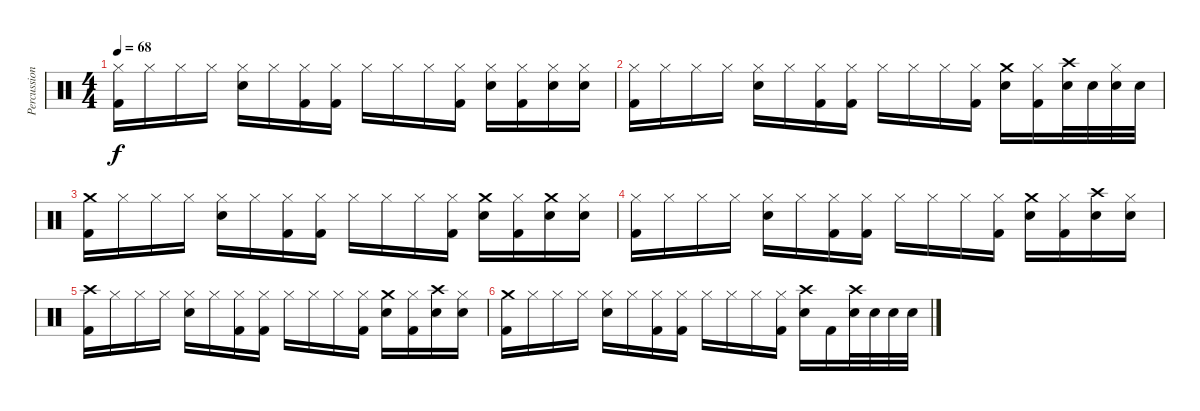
\track ("Percussion" "Percussion") {instrument percussion}
\staff {score}
\articulation defaults
\ts (4 4)
\tempo 68
\clef neutral
\ks c
("Hi-Hat (closed)" "Kick (hit) 2").16{dy f} "Hi-Hat (closed)".16 "Hi-Hat (closed)".16 "Hi-Hat (closed)".16 ("Hi-Hat (closed)" "Electric Snare (hit)").16 "Hi-Hat (closed)".16 ("Hi-Hat (closed)" "Kick (hit) 2").16 ("Hi-Hat (closed)" "Kick (hit) 2").16 "Hi-Hat (closed)".16 "Hi-Hat (closed)".16 "Hi-Hat (closed)".16 ("Hi-Hat (closed)" "Kick (hit) 2").16 ("Hi-Hat (closed)" "Electric Snare (hit)").16 ("Hi-Hat (closed)" "Kick (hit) 2").16 ("Hi-Hat (closed)" "Electric Snare (hit)").16 ("Hi-Hat (closed)" "Electric Snare (hit)").16 |
("Hi-Hat (closed)" "Kick (hit) 2").16 "Hi-Hat (closed)".16 "Hi-Hat (closed)".16 "Hi-Hat (closed)".16 ("Hi-Hat (closed)" "Electric Snare (hit)").16 "Hi-Hat (closed)".16 ("Hi-Hat (closed)" "Kick (hit) 2").16 ("Hi-Hat (closed)" "Kick (hit) 2").16 "Hi-Hat (closed)".16 "Hi-Hat (closed)".16 "Hi-Hat (closed)".16 ("Hi-Hat (closed)" "Kick (hit) 2").16 ("Crash medium (hit)" "Electric Snare (hit)").16 ("Hi-Hat (closed)" "Kick (hit) 2").16 ("Crash high (hit)" "Electric Snare (hit)").32 "Electric Snare (hit)".32 ("Hi-Hat (closed)" "Electric Snare (hit)").32 "Electric Snare (hit)".32 |
("Crash medium (hit)" "Kick (hit) 2").16 "Hi-Hat (closed)".16 "Hi-Hat (closed)".16 "Hi-Hat (closed)".16 ("Hi-Hat (closed)" "Electric Snare (hit)").16 "Hi-Hat (closed)".16 ("Hi-Hat (closed)" "Kick (hit) 2").16 ("Hi-Hat (closed)" "Kick (hit) 2").16 "Hi-Hat (closed)".16 "Hi-Hat (closed)".16 "Hi-Hat (closed)".16 ("Hi-Hat (closed)" "Kick (hit) 2").16 ("Crash medium (hit)" "Electric Snare (hit)").16 ("Hi-Hat (closed)" "Kick (hit) 2").16 ("Crash medium (hit)" "Electric Snare (hit)").16 ("Hi-Hat (closed)" "Electric Snare (hit)").16 |
("Hi-Hat (closed)" "Kick (hit) 2").16 "Hi-Hat (closed)".16 "Hi-Hat (closed)".16 "Hi-Hat (closed)".16 ("Hi-Hat (closed)" "Electric Snare (hit)").16 "Hi-Hat (closed)".16 ("Hi-Hat (closed)" "Kick (hit) 2").16 ("Hi-Hat (closed)" "Kick (hit) 2").16 "Hi-Hat (closed)".16 "Hi-Hat (closed)".16 "Hi-Hat (closed)".16 ("Hi-Hat (closed)" "Kick (hit) 2").16 ("Crash medium (hit)" "Electric Snare (hit)").16 ("Hi-Hat (closed)" "Kick (hit) 2").16 ("Crash high (hit)" "Electric Snare (hit)").16 ("Hi-Hat (closed)" "Electric Snare (hit)").16 |
("Crash high (hit)" "Kick (hit) 2").16 "Hi-Hat (closed)".16 "Hi-Hat (closed)".16 "Hi-Hat (closed)".16 ("Hi-Hat (closed)" "Electric Snare (hit)").16 "Hi-Hat (closed)".16 ("Hi-Hat (closed)" "Kick (hit) 2").16 ("Hi-Hat (closed)" "Kick (hit) 2").16 "Hi-Hat (closed)".16 "Hi-Hat (closed)".16 "Hi-Hat (closed)".16 ("Hi-Hat (closed)" "Kick (hit) 2").16 ("Crash medium (hit)" "Electric Snare (hit)").16 ("Hi-Hat (closed)" "Kick (hit) 2").16 ("Crash high (hit)" "Electric Snare (hit)").16 ("Hi-Hat (closed)" "Electric Snare (hit)").16 |
("Crash medium (hit)" "Kick (hit) 2").16 "Hi-Hat (closed)".16 "Hi-Hat (closed)".16 "Hi-Hat (closed)".16 ("Hi-Hat (closed)" "Electric Snare (hit)").16 "Hi-Hat (closed)".16 ("Hi-Hat (closed)" "Kick (hit) 2").16 ("Hi-Hat (closed)" "Kick (hit) 2").16 "Hi-Hat (closed)".16 "Hi-Hat (closed)".16 "Hi-Hat (closed)".16 ("Hi-Hat (closed)" "Kick (hit) 2").16 ("Crash high (hit)" "Electric Snare (hit)").16 "Kick (hit) 2".16 ("Crash high (hit)" "Snare (hit) 2").32 "Snare (hit) 2".32 "Electric Snare (hit)".32 "Electric Snare (hit)".32
